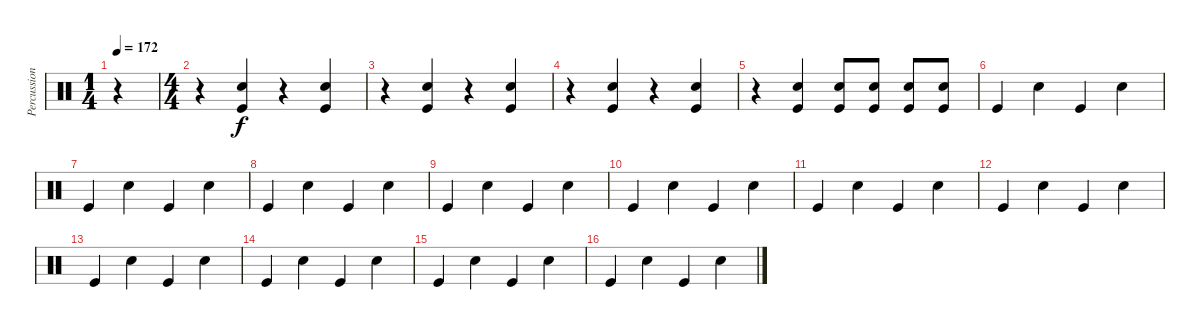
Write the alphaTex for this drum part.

\track ("Percussion" "Percussion") {instrument percussion}
\staff {score}
\articulation defaults
\ts (1 4)
\tempo 172
\clef neutral
\ks c
r.4{dy f} |
\ts (4 4)
r.4 ("Snare (hit) 2" "Kick (hit)").4 r.4 ("Snare (hit) 2" "Kick (hit)").4 |
r.4 ("Snare (hit) 2" "Kick (hit)").4 r.4 ("Snare (hit) 2" "Kick (hit)").4 |
r.4 ("Snare (hit) 2" "Kick (hit)").4 r.4 ("Snare (hit) 2" "Kick (hit)").4 |
r.4 ("Snare (hit) 2" "Kick (hit)").4 ("Snare (hit) 2" "Kick (hit)").8 ("Snare (hit) 2" "Kick (hit)").8 ("Snare (hit) 2" "Kick (hit)").8 ("Snare (hit) 2" "Kick (hit)").8 |
"Kick (hit)".4 "Snare (hit) 2".4 "Kick (hit)".4 "Snare (hit) 2".4 |
"Kick (hit)".4 "Snare (hit) 2".4 "Kick (hit)".4 "Snare (hit) 2".4 |
"Kick (hit)".4 "Snare (hit) 2".4 "Kick (hit)".4 "Snare (hit) 2".4 |
"Kick (hit)".4 "Snare (hit) 2".4 "Kick (hit)".4 "Snare (hit) 2".4 |
"Kick (hit)".4 "Snare (hit) 2".4 "Kick (hit)".4 "Snare (hit) 2".4 |
"Kick (hit)".4 "Snare (hit) 2".4 "Kick (hit)".4 "Snare (hit) 2".4 |
"Kick (hit)".4 "Snare (hit) 2".4 "Kick (hit)".4 "Snare (hit) 2".4 |
"Kick (hit)".4 "Snare (hit) 2".4 "Kick (hit)".4 "Snare (hit) 2".4 |
"Kick (hit)".4 "Snare (hit) 2".4 "Kick (hit)".4 "Snare (hit) 2".4 |
"Kick (hit)".4 "Snare (hit) 2".4 "Kick (hit)".4 "Snare (hit) 2".4 |
"Kick (hit)".4 "Snare (hit) 2".4 "Kick (hit)".4 "Snare (hit) 2".4
